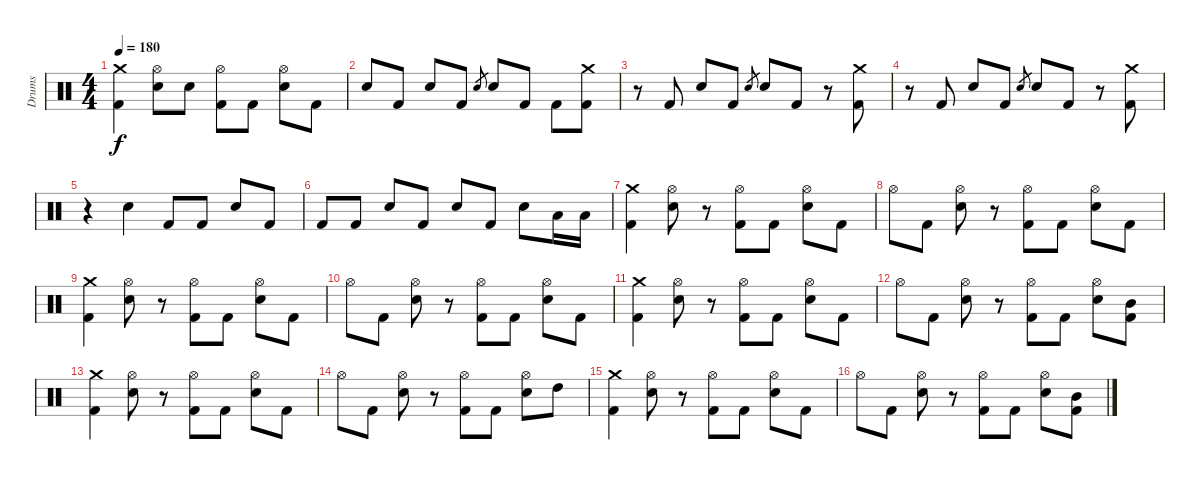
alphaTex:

\track ("Drums" "Drums") {instrument percussion}
\staff {score}
\articulation defaults
\ts (4 4)
\tempo 180
\clef neutral
\ks c
("Crash medium (hit)" "Kick (hit) 2").4{dy f} ("Hi-Hat (open)" "Electric Snare (hit)").8 "Electric Snare (hit)".8 ("Hi-Hat (open)" "Kick (hit) 2").8 "Kick (hit) 2".8 ("Hi-Hat (open)" "Electric Snare (hit)").8 "Kick (hit) 2".8 |
"Electric Snare (hit)".8 "Kick (hit) 2".8 "Electric Snare (hit)".8 "Kick (hit) 2".8 "Electric Snare (hit)".8{gr} "Electric Snare (hit)".8 "Kick (hit) 2".8 "Kick (hit) 2".8 ("Crash medium (hit)" "Kick (hit) 2").8 |
r.8 "Kick (hit) 2".8 "Electric Snare (hit)".8 "Kick (hit) 2".8 "Electric Snare (hit)".8{gr} "Electric Snare (hit)".8 "Kick (hit) 2".8 r.8 ("Crash medium (hit)" "Kick (hit) 2").8 |
r.8 "Kick (hit) 2".8 "Electric Snare (hit)".8 "Kick (hit) 2".8 "Electric Snare (hit)".8{gr} "Electric Snare (hit)".8 "Kick (hit) 2".8 r.8 ("Crash medium (hit)" "Kick (hit) 2").8 |
r.4 "Electric Snare (hit)".4 "Kick (hit) 2".8 "Kick (hit) 2".8 "Electric Snare (hit)".8 "Kick (hit) 2".8 |
"Kick (hit) 2".8 "Kick (hit) 2".8 "Electric Snare (hit)".8 "Kick (hit) 2".8 "Electric Snare (hit)".8 "Kick (hit) 2".8 "Electric Snare (hit)".8 "Low Tom (hit)".16 "Low Tom (hit)".16 |
("Crash medium (hit)" "Kick (hit) 2").4 ("Hi-Hat (open)" "Electric Snare (hit)").8 r.8 ("Hi-Hat (open)" "Kick (hit) 2").8 "Kick (hit) 2".8 ("Hi-Hat (open)" "Electric Snare (hit)").8 "Kick (hit) 2".8 |
"Hi-Hat (open)".8 "Kick (hit) 2".8 ("Hi-Hat (open)" "Electric Snare (hit)").8 r.8 ("Hi-Hat (open)" "Kick (hit) 2").8 "Kick (hit) 2".8 ("Hi-Hat (open)" "Electric Snare (hit)").8 "Kick (hit) 2".8 |
("Crash medium (hit)" "Kick (hit) 2").4 ("Hi-Hat (open)" "Electric Snare (hit)").8 r.8 ("Hi-Hat (open)" "Kick (hit) 2").8 "Kick (hit) 2".8 ("Hi-Hat (open)" "Electric Snare (hit)").8 "Kick (hit) 2".8 |
"Hi-Hat (open)".8 "Kick (hit) 2".8 ("Hi-Hat (open)" "Electric Snare (hit)").8 r.8 ("Hi-Hat (open)" "Kick (hit) 2").8 "Kick (hit) 2".8 ("Hi-Hat (open)" "Electric Snare (hit)").8 "Kick (hit) 2".8 |
("Crash medium (hit)" "Kick (hit) 2").4 ("Hi-Hat (open)" "Electric Snare (hit)").8 r.8 ("Hi-Hat (open)" "Kick (hit) 2").8 "Kick (hit) 2".8 ("Hi-Hat (open)" "Electric Snare (hit)").8 "Kick (hit) 2".8 |
"Hi-Hat (open)".8 "Kick (hit) 2".8 ("Hi-Hat (open)" "Electric Snare (hit)").8 r.8 ("Hi-Hat (open)" "Kick (hit) 2").8 "Kick (hit) 2".8 ("Hi-Hat (open)" "Electric Snare (hit)").8 ("Mid Tom (hit)" "Kick (hit) 2").8 |
("Crash medium (hit)" "Kick (hit) 2").4 ("Hi-Hat (open)" "Electric Snare (hit)").8 r.8 ("Hi-Hat (open)" "Kick (hit) 2").8 "Kick (hit) 2".8 ("Hi-Hat (open)" "Electric Snare (hit)").8 "Kick (hit) 2".8 |
"Hi-Hat (open)".8 "Kick (hit) 2".8 ("Hi-Hat (open)" "Electric Snare (hit)").8 r.8 ("Hi-Hat (open)" "Kick (hit) 2").8 "Kick (hit) 2".8 ("Hi-Hat (open)" "Electric Snare (hit)").8 "High Tom (hit)".8 |
("Crash medium (hit)" "Kick (hit) 2").4 ("Hi-Hat (open)" "Electric Snare (hit)").8 r.8 ("Hi-Hat (open)" "Kick (hit) 2").8 "Kick (hit) 2".8 ("Hi-Hat (open)" "Electric Snare (hit)").8 "Kick (hit) 2".8 |
"Hi-Hat (open)".8 "Kick (hit) 2".8 ("Hi-Hat (open)" "Electric Snare (hit)").8 r.8 ("Hi-Hat (open)" "Kick (hit) 2").8 "Kick (hit) 2".8 ("Hi-Hat (open)" "Electric Snare (hit)").8 ("Mid Tom (hit)" "Kick (hit) 2").8
